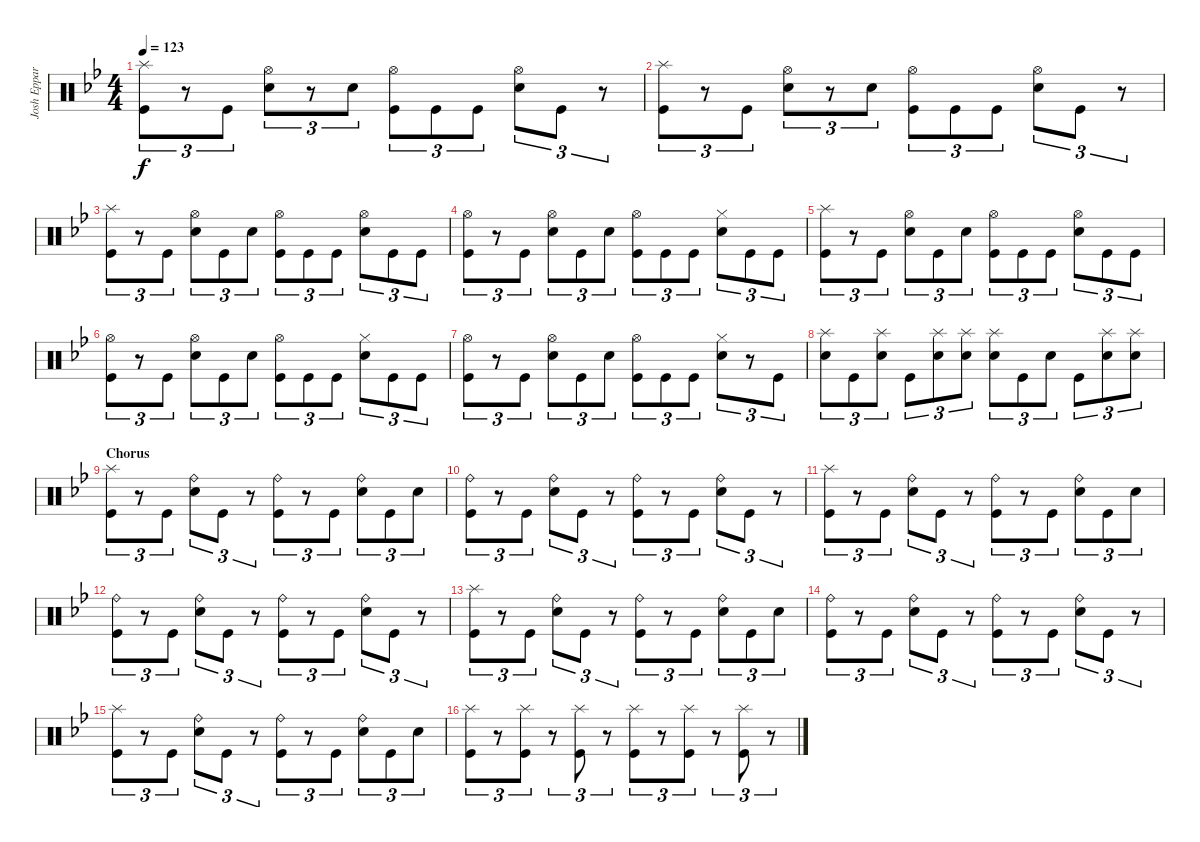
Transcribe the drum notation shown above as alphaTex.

\track ("Josh Eppard" "Josh Eppar") {instrument percussion}
\staff {score}
\articulation defaults
\ts (4 4)
\tempo 123
\clef neutral
\ks gminor
("Kick (hit)" "Splash (hit)").8{tu (3 2) dy f} r.8{tu (3 2)} "Kick (hit)".8{tu (3 2)} ("Snare (hit) 2" "Hi-Hat (open)").8{tu (3 2)} r.8{tu (3 2)} "Snare (hit) 2".8{tu (3 2)} ("Hi-Hat (open)" "Kick (hit)").8{tu (3 2)} "Kick (hit)".8{tu (3 2)} "Kick (hit)".8{tu (3 2)} ("Snare (hit) 2" "Hi-Hat (open)").8{tu (3 2)} "Kick (hit)".8{tu (3 2)} r.8{tu (3 2)} |
("Kick (hit)" "Splash (hit)").8{tu (3 2)} r.8{tu (3 2)} "Kick (hit)".8{tu (3 2)} ("Snare (hit) 2" "Hi-Hat (open)").8{tu (3 2)} r.8{tu (3 2)} "Snare (hit) 2".8{tu (3 2)} ("Kick (hit)" "Hi-Hat (open)").8{tu (3 2)} "Kick (hit)".8{tu (3 2)} "Kick (hit)".8{tu (3 2)} ("Snare (hit) 2" "Hi-Hat (open)").8{tu (3 2)} "Kick (hit)".8{tu (3 2)} r.8{tu (3 2)} |
("Kick (hit)" "Splash (hit)").8{tu (3 2)} r.8{tu (3 2)} "Kick (hit)".8{tu (3 2)} ("Snare (hit) 2" "Hi-Hat (open)").8{tu (3 2)} "Kick (hit)".8{tu (3 2)} "Snare (hit) 2".8{tu (3 2)} ("Kick (hit)" "Hi-Hat (open)").8{tu (3 2)} "Kick (hit)".8{tu (3 2)} "Kick (hit)".8{tu (3 2)} ("Snare (hit) 2" "Hi-Hat (open)").8{tu (3 2)} "Kick (hit)".8{tu (3 2)} "Kick (hit)".8{tu (3 2)} |
("Kick (hit)" "Hi-Hat (open)").8{tu (3 2)} r.8{tu (3 2)} "Kick (hit)".8{tu (3 2)} ("Snare (hit) 2" "Hi-Hat (open)").8{tu (3 2)} "Kick (hit)".8{tu (3 2)} "Snare (hit) 2".8{tu (3 2)} ("Hi-Hat (open)" "Kick (hit)").8{tu (3 2)} "Kick (hit)".8{tu (3 2)} "Kick (hit)".8{tu (3 2)} ("Snare (hit) 2" "Hi-Hat (closed)").8{tu (3 2)} "Kick (hit)".8{tu (3 2)} "Kick (hit)".8{tu (3 2)} |
("Kick (hit)" "Splash (hit)").8{tu (3 2)} r.8{tu (3 2)} "Kick (hit)".8{tu (3 2)} ("Snare (hit) 2" "Hi-Hat (open)").8{tu (3 2)} "Kick (hit)".8{tu (3 2)} "Snare (hit) 2".8{tu (3 2)} ("Kick (hit)" "Hi-Hat (open)").8{tu (3 2)} "Kick (hit)".8{tu (3 2)} "Kick (hit)".8{tu (3 2)} ("Snare (hit) 2" "Hi-Hat (open)").8{tu (3 2)} "Kick (hit)".8{tu (3 2)} "Kick (hit)".8{tu (3 2)} |
("Kick (hit)" "Hi-Hat (open)").8{tu (3 2)} r.8{tu (3 2)} "Kick (hit)".8{tu (3 2)} ("Snare (hit) 2" "Hi-Hat (open)").8{tu (3 2)} "Kick (hit)".8{tu (3 2)} "Snare (hit) 2".8{tu (3 2)} ("Hi-Hat (open)" "Kick (hit)").8{tu (3 2)} "Kick (hit)".8{tu (3 2)} "Kick (hit)".8{tu (3 2)} ("Snare (hit) 2" "Hi-Hat (closed)").8{tu (3 2)} "Kick (hit)".8{tu (3 2)} "Kick (hit)".8{tu (3 2)} |
("Kick (hit)" "Hi-Hat (open)").8{tu (3 2)} r.8{tu (3 2)} "Kick (hit)".8{tu (3 2)} ("Snare (hit) 2" "Hi-Hat (open)").8{tu (3 2)} "Kick (hit)".8{tu (3 2)} "Snare (hit) 2".8{tu (3 2)} ("Hi-Hat (open)" "Kick (hit)").8{tu (3 2)} "Kick (hit)".8{tu (3 2)} "Kick (hit)".8{tu (3 2)} ("Snare (hit) 2" "Hi-Hat (closed)").8{tu (3 2)} r.8{tu (3 2)} "Kick (hit)".8{tu (3 2)} |
("Snare (hit) 2" "Splash (hit)").8{tu (3 2)} "Kick (hit)".8{tu (3 2)} ("Snare (hit) 2" "Splash (hit)").8{tu (3 2)} "Kick (hit)".8{tu (3 2)} ("Snare (hit) 2" "Splash (hit)").8{tu (3 2)} ("Snare (hit) 2" "Splash (hit)").8{tu (3 2)} ("Snare (hit) 2" "Splash (hit)").8{tu (3 2)} "Kick (hit)".8{tu (3 2)} "Snare (hit) 2".8{tu (3 2)} "Kick (hit)".8{tu (3 2)} ("Snare (hit) 2" "Splash (hit)").8{tu (3 2)} ("Snare (hit) 2" "Splash (hit)").8{tu (3 2)} |
\section ("" "Chorus")
("Splash (hit)" "Kick (hit)").8{tu (3 2)} r.8{tu (3 2)} "Kick (hit)".8{tu (3 2)} ("Snare (hit) 2" "Ride (bell)").8{tu (3 2)} "Kick (hit)".8{tu (3 2)} r.8{tu (3 2)} ("Kick (hit)" "Ride (bell)").8{tu (3 2)} r.8{tu (3 2)} "Kick (hit)".8{tu (3 2)} ("Ride (bell)" "Snare (hit) 2").8{tu (3 2)} "Kick (hit)".8{tu (3 2)} "Snare (hit) 2".8{tu (3 2)} |
("Ride (bell)" "Kick (hit)").8{tu (3 2)} r.8{tu (3 2)} "Kick (hit)".8{tu (3 2)} ("Snare (hit) 2" "Ride (bell)").8{tu (3 2)} "Kick (hit)".8{tu (3 2)} r.8{tu (3 2)} ("Kick (hit)" "Ride (bell)").8{tu (3 2)} r.8{tu (3 2)} "Kick (hit)".8{tu (3 2)} ("Snare (hit) 2" "Ride (bell)").8{tu (3 2)} "Kick (hit)".8{tu (3 2)} r.8{tu (3 2)} |
("Splash (hit)" "Kick (hit)").8{tu (3 2)} r.8{tu (3 2)} "Kick (hit)".8{tu (3 2)} ("Snare (hit) 2" "Ride (bell)").8{tu (3 2)} "Kick (hit)".8{tu (3 2)} r.8{tu (3 2)} ("Kick (hit)" "Ride (bell)").8{tu (3 2)} r.8{tu (3 2)} "Kick (hit)".8{tu (3 2)} ("Ride (bell)" "Snare (hit) 2").8{tu (3 2)} "Kick (hit)".8{tu (3 2)} "Snare (hit) 2".8{tu (3 2)} |
("Ride (bell)" "Kick (hit)").8{tu (3 2)} r.8{tu (3 2)} "Kick (hit)".8{tu (3 2)} ("Snare (hit) 2" "Ride (bell)").8{tu (3 2)} "Kick (hit)".8{tu (3 2)} r.8{tu (3 2)} ("Kick (hit)" "Ride (bell)").8{tu (3 2)} r.8{tu (3 2)} "Kick (hit)".8{tu (3 2)} ("Snare (hit) 2" "Ride (bell)").8{tu (3 2)} "Kick (hit)".8{tu (3 2)} r.8{tu (3 2)} |
("Splash (hit)" "Kick (hit)").8{tu (3 2)} r.8{tu (3 2)} "Kick (hit)".8{tu (3 2)} ("Snare (hit) 2" "Ride (bell)").8{tu (3 2)} "Kick (hit)".8{tu (3 2)} r.8{tu (3 2)} ("Kick (hit)" "Ride (bell)").8{tu (3 2)} r.8{tu (3 2)} "Kick (hit)".8{tu (3 2)} ("Ride (bell)" "Snare (hit) 2").8{tu (3 2)} "Kick (hit)".8{tu (3 2)} "Snare (hit) 2".8{tu (3 2)} |
("Ride (bell)" "Kick (hit)").8{tu (3 2)} r.8{tu (3 2)} "Kick (hit)".8{tu (3 2)} ("Snare (hit) 2" "Ride (bell)").8{tu (3 2)} "Kick (hit)".8{tu (3 2)} r.8{tu (3 2)} ("Kick (hit)" "Ride (bell)").8{tu (3 2)} r.8{tu (3 2)} "Kick (hit)".8{tu (3 2)} ("Snare (hit) 2" "Ride (bell)").8{tu (3 2)} "Kick (hit)".8{tu (3 2)} r.8{tu (3 2)} |
("Splash (hit)" "Kick (hit)").8{tu (3 2)} r.8{tu (3 2)} "Kick (hit)".8{tu (3 2)} ("Snare (hit) 2" "Ride (bell)").8{tu (3 2)} "Kick (hit)".8{tu (3 2)} r.8{tu (3 2)} ("Kick (hit)" "Ride (bell)").8{tu (3 2)} r.8{tu (3 2)} "Kick (hit)".8{tu (3 2)} ("Ride (bell)" "Snare (hit) 2").8{tu (3 2)} "Kick (hit)".8{tu (3 2)} "Snare (hit) 2".8{tu (3 2)} |
("Kick (hit)" "Splash (hit)").8{tu (3 2)} r.8{tu (3 2)} ("Kick (hit)" "Splash (hit)").8{tu (3 2)} r.8{tu (3 2)} ("Kick (hit)" "Splash (hit)").8{tu (3 2)} r.8{tu (3 2)} ("Kick (hit)" "Splash (hit)").8{tu (3 2)} r.8{tu (3 2)} ("Kick (hit)" "Splash (hit)").8{tu (3 2)} r.8{tu (3 2)} ("Kick (hit)" "Splash (hit)").8{tu (3 2)} r.8{tu (3 2)}
